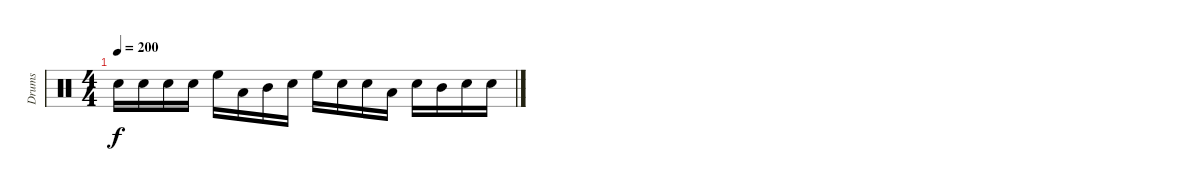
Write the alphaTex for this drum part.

\track ("Drums" "Drums") {instrument percussion}
\staff {score}
\articulation defaults
\ts (4 4)
\tempo 200
\clef neutral
\ks c "Electric Snare (hit)".16{dy f} "Electric Snare (hit)".16 "Electric Snare (hit)".16 "Electric Snare (hit)".16 "High Floor Tom (hit)".16 "Low Tom (hit)".16 "Mid Tom (hit)".16 "Electric Snare (hit)".16 "High Floor Tom (hit)".16 "Electric Snare (hit)".16 "Electric Snare (hit)".16 "Low Tom (hit)".16 "Electric Snare (hit)".16 "Mid Tom (hit)".16 "Electric Snare (hit)".16 "Electric Snare (hit)".16
